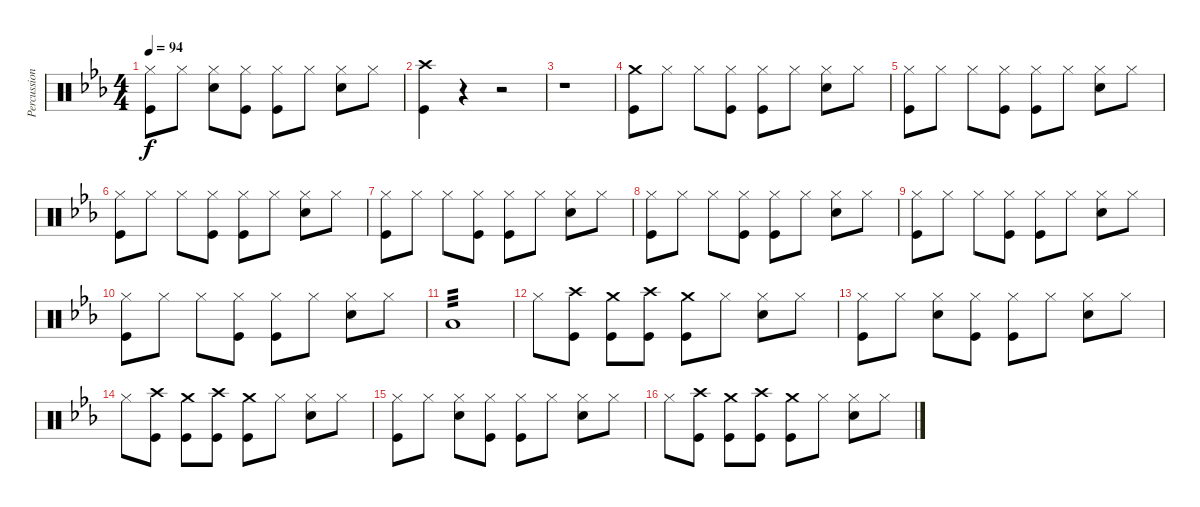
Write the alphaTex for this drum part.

\track ("Percussion" "Percussion") {instrument percussion}
\staff {score}
\articulation defaults
\ts (4 4)
\tempo 94
\clef neutral
\ks eb
("Hi-Hat (closed)" "Kick (hit)").8{dy f} "Hi-Hat (closed)".8 ("Hi-Hat (closed)" "Snare (hit) 2").8 ("Hi-Hat (closed)" "Kick (hit)").8 ("Hi-Hat (closed)" "Kick (hit)").8 "Hi-Hat (closed)".8 ("Hi-Hat (closed)" "Snare (hit) 2").8 "Hi-Hat (closed)".8 |
("Crash high (hit)" "Kick (hit)").4 r.4 r.2 |
r.1 |
("Crash medium (hit)" "Kick (hit)").8 "Hi-Hat (closed)".8 "Hi-Hat (closed)".8 ("Hi-Hat (closed)" "Kick (hit)").8 ("Hi-Hat (closed)" "Kick (hit)").8 "Hi-Hat (closed)".8 ("Hi-Hat (closed)" "Snare (hit) 2").8 "Hi-Hat (closed)".8 |
("Hi-Hat (closed)" "Kick (hit)").8 "Hi-Hat (closed)".8 "Hi-Hat (closed)".8 ("Hi-Hat (closed)" "Kick (hit)").8 ("Hi-Hat (closed)" "Kick (hit)").8 "Hi-Hat (closed)".8 ("Hi-Hat (closed)" "Snare (hit) 2").8 "Hi-Hat (closed)".8 |
("Hi-Hat (closed)" "Kick (hit)").8 "Hi-Hat (closed)".8 "Hi-Hat (closed)".8 ("Hi-Hat (closed)" "Kick (hit)").8 ("Hi-Hat (closed)" "Kick (hit)").8 "Hi-Hat (closed)".8 ("Hi-Hat (closed)" "Snare (hit) 2").8 "Hi-Hat (closed)".8 |
("Hi-Hat (closed)" "Kick (hit)").8 "Hi-Hat (closed)".8 "Hi-Hat (closed)".8 ("Hi-Hat (closed)" "Kick (hit)").8 ("Hi-Hat (closed)" "Kick (hit)").8 "Hi-Hat (closed)".8 ("Hi-Hat (closed)" "Snare (hit) 2").8 "Hi-Hat (closed)".8 |
("Hi-Hat (closed)" "Kick (hit)").8 "Hi-Hat (closed)".8 "Hi-Hat (closed)".8 ("Hi-Hat (closed)" "Kick (hit)").8 ("Hi-Hat (closed)" "Kick (hit)").8 "Hi-Hat (closed)".8 ("Hi-Hat (closed)" "Snare (hit) 2").8 "Hi-Hat (closed)".8 |
("Hi-Hat (closed)" "Kick (hit)").8 "Hi-Hat (closed)".8 "Hi-Hat (closed)".8 ("Hi-Hat (closed)" "Kick (hit)").8 ("Hi-Hat (closed)" "Kick (hit)").8 "Hi-Hat (closed)".8 ("Hi-Hat (closed)" "Snare (hit) 2").8 "Hi-Hat (closed)".8 |
("Hi-Hat (closed)" "Kick (hit)").8 "Hi-Hat (closed)".8 "Hi-Hat (closed)".8 ("Hi-Hat (closed)" "Kick (hit)").8 ("Hi-Hat (closed)" "Kick (hit)").8 "Hi-Hat (closed)".8 ("Hi-Hat (closed)" "Snare (hit) 2").8 "Hi-Hat (closed)".8 |
"Low Tom (hit)".1{tp 3} |
"Hi-Hat (closed)".8 ("Crash high (hit)" "Kick (hit)").8 ("Crash medium (hit)" "Kick (hit)").8 ("Crash high (hit)" "Kick (hit)").8 ("Crash medium (hit)" "Kick (hit)").8 "Hi-Hat (closed)".8 ("Hi-Hat (closed)" "Snare (hit) 2").8 "Hi-Hat (closed)".8 |
("Hi-Hat (closed)" "Kick (hit)").8 "Hi-Hat (closed)".8 ("Hi-Hat (closed)" "Snare (hit) 2").8 ("Hi-Hat (closed)" "Kick (hit)").8 ("Hi-Hat (closed)" "Kick (hit)").8 "Hi-Hat (closed)".8 ("Hi-Hat (closed)" "Snare (hit) 2").8 "Hi-Hat (closed)".8 |
"Hi-Hat (closed)".8 ("Crash high (hit)" "Kick (hit)").8 ("Crash medium (hit)" "Kick (hit)").8 ("Crash high (hit)" "Kick (hit)").8 ("Crash medium (hit)" "Kick (hit)").8 "Hi-Hat (closed)".8 ("Hi-Hat (closed)" "Snare (hit) 2").8 "Hi-Hat (closed)".8 |
("Hi-Hat (closed)" "Kick (hit)").8 "Hi-Hat (closed)".8 ("Hi-Hat (closed)" "Snare (hit) 2").8 ("Hi-Hat (closed)" "Kick (hit)").8 ("Hi-Hat (closed)" "Kick (hit)").8 "Hi-Hat (closed)".8 ("Hi-Hat (closed)" "Snare (hit) 2").8 "Hi-Hat (closed)".8 |
"Hi-Hat (closed)".8 ("Crash high (hit)" "Kick (hit)").8 ("Crash medium (hit)" "Kick (hit)").8 ("Crash high (hit)" "Kick (hit)").8 ("Crash medium (hit)" "Kick (hit)").8 "Hi-Hat (closed)".8 ("Hi-Hat (closed)" "Snare (hit) 2").8 "Hi-Hat (closed)".8
